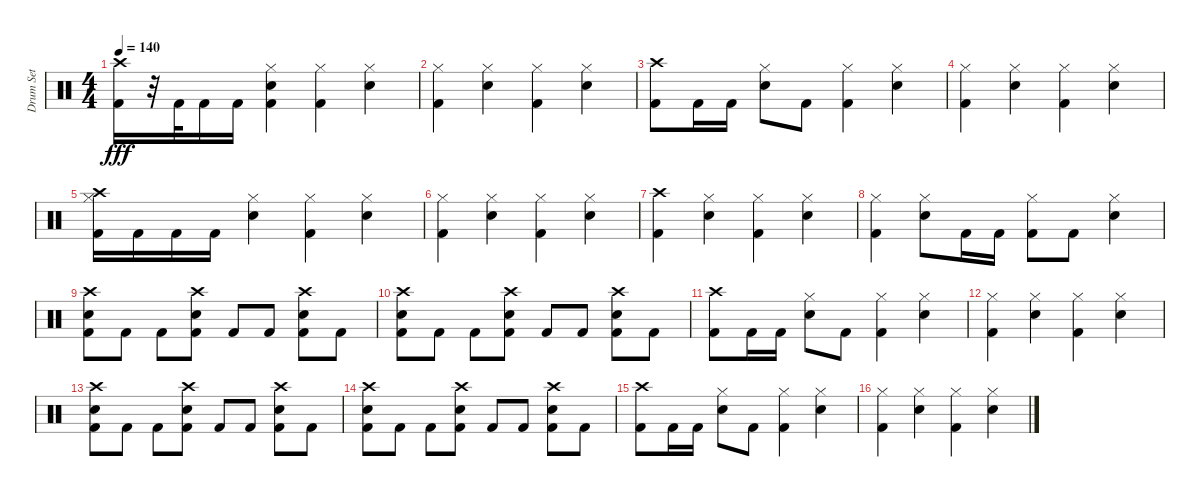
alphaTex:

\track ("Drum Set" "Drum Set") {instrument percussion}
\staff {score}
\articulation defaults
\ts (4 4)
\tempo 140
\clef neutral
\ks c
("Crash high (hit)" "Kick (hit) 2").16{dy fff} r.32 "Kick (hit) 2".32 "Kick (hit) 2".16 "Kick (hit) 2".16 ("Electric Snare (hit)" "Kick (hit) 2" "Hi-Hat (closed)").4 ("Kick (hit) 2" "Hi-Hat (closed)").4 ("Electric Snare (hit)" "Hi-Hat (closed)").4 |
("Kick (hit) 2" "Hi-Hat (closed)").4 ("Electric Snare (hit)" "Hi-Hat (closed)").4 ("Kick (hit) 2" "Hi-Hat (closed)").4 ("Electric Snare (hit)" "Hi-Hat (closed)").4 |
("Crash high (hit)" "Kick (hit) 2").8 "Kick (hit) 2".16 "Kick (hit) 2".16 ("Electric Snare (hit)" "Hi-Hat (closed)").8 "Kick (hit) 2".8 ("Kick (hit) 2" "Hi-Hat (closed)").4 ("Electric Snare (hit)" "Hi-Hat (closed)").4 |
("Kick (hit) 2" "Hi-Hat (closed)").4 ("Electric Snare (hit)" "Hi-Hat (closed)").4 ("Kick (hit) 2" "Hi-Hat (closed)").4 ("Electric Snare (hit)" "Hi-Hat (closed)").4 |
("Hi-Hat (closed)" "Crash high (hit)" "Kick (hit) 2").16 "Kick (hit) 2".16 "Kick (hit) 2".16 "Kick (hit) 2".16 ("Electric Snare (hit)" "Hi-Hat (closed)").4 ("Kick (hit) 2" "Hi-Hat (closed)").4 ("Electric Snare (hit)" "Hi-Hat (closed)").4 |
("Kick (hit) 2" "Hi-Hat (closed)").4 ("Electric Snare (hit)" "Hi-Hat (closed)").4 ("Kick (hit) 2" "Hi-Hat (closed)").4 ("Electric Snare (hit)" "Hi-Hat (closed)").4 |
("Kick (hit) 2" "Crash high (hit)").4 ("Electric Snare (hit)" "Hi-Hat (closed)").4 ("Kick (hit) 2" "Hi-Hat (closed)").4 ("Electric Snare (hit)" "Hi-Hat (closed)").4 |
("Kick (hit) 2" "Hi-Hat (closed)").4 ("Electric Snare (hit)" "Hi-Hat (closed)").8 "Kick (hit) 2".16 "Kick (hit) 2".16 ("Hi-Hat (closed)" "Kick (hit) 2").8 "Kick (hit) 2".8 ("Hi-Hat (closed)" "Electric Snare (hit)").4 |
("Electric Snare (hit)" "Kick (hit) 2" "Crash high (hit)").8 "Kick (hit) 2".8 "Kick (hit) 2".8 ("Electric Snare (hit)" "Kick (hit) 2" "Crash high (hit)").8 "Kick (hit) 2".8 "Kick (hit) 2".8 ("Electric Snare (hit)" "Kick (hit) 2" "Crash high (hit)").8 "Kick (hit) 2".8 |
("Electric Snare (hit)" "Crash high (hit)" "Kick (hit) 2").8 "Kick (hit) 2".8 "Kick (hit) 2".8 ("Electric Snare (hit)" "Crash high (hit)" "Kick (hit) 2").8 "Kick (hit) 2".8 "Kick (hit) 2".8 ("Electric Snare (hit)" "Kick (hit) 2" "Crash high (hit)").8 "Kick (hit) 2".8 |
("Crash high (hit)" "Kick (hit) 2").8 "Kick (hit) 2".16 "Kick (hit) 2".16 ("Electric Snare (hit)" "Hi-Hat (closed)").8 "Kick (hit) 2".8 ("Kick (hit) 2" "Hi-Hat (closed)").4 ("Electric Snare (hit)" "Hi-Hat (closed)").4 |
("Kick (hit) 2" "Hi-Hat (closed)").4 ("Electric Snare (hit)" "Hi-Hat (closed)").4 ("Kick (hit) 2" "Hi-Hat (closed)").4 ("Electric Snare (hit)" "Hi-Hat (closed)").4 |
("Electric Snare (hit)" "Kick (hit) 2" "Crash high (hit)").8 "Kick (hit) 2".8 "Kick (hit) 2".8 ("Electric Snare (hit)" "Crash high (hit)" "Kick (hit) 2").8 "Kick (hit) 2".8 "Kick (hit) 2".8 ("Electric Snare (hit)" "Crash high (hit)" "Kick (hit) 2").8 "Kick (hit) 2".8 |
("Electric Snare (hit)" "Kick (hit) 2" "Crash high (hit)").8 "Kick (hit) 2".8 "Kick (hit) 2".8 ("Electric Snare (hit)" "Crash high (hit)" "Kick (hit) 2").8 "Kick (hit) 2".8 "Kick (hit) 2".8 ("Electric Snare (hit)" "Kick (hit) 2" "Crash high (hit)").8 "Kick (hit) 2".8 |
("Kick (hit) 2" "Crash high (hit)").8 "Kick (hit) 2".16 "Kick (hit) 2".16 ("Electric Snare (hit)" "Hi-Hat (closed)").8 "Kick (hit) 2".8 ("Kick (hit) 2" "Hi-Hat (closed)").4 ("Electric Snare (hit)" "Hi-Hat (closed)").4 |
("Kick (hit) 2" "Hi-Hat (closed)").4 ("Electric Snare (hit)" "Hi-Hat (closed)").4 ("Kick (hit) 2" "Hi-Hat (closed)").4 ("Electric Snare (hit)" "Hi-Hat (closed)").4
